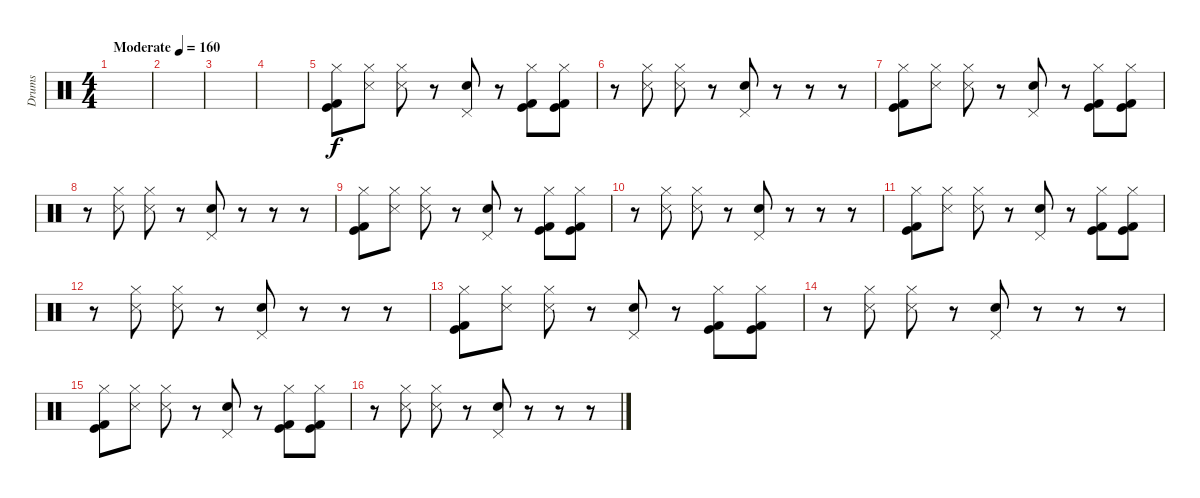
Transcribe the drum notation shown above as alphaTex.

\track ("Drums" "Drums") {instrument percussion}
\staff {score}
\articulation defaults
\ts (4 4)
\tempo (160 "Moderate")
\clef neutral
\ks c
|
|
|
|
("Kick (hit)" "Kick (hit) 2" "Hi-Hat (closed)").8 ("Metronome (hit)" "Hi-Hat (closed)").8 ("Metronome (hit)" "Hi-Hat (closed)").8 r.8 ("Pedal Hi-Hat (hit)" "Electric Snare (hit)").8 r.8 ("Kick (hit)" "Kick (hit) 2" "Hi-Hat (closed)").8 ("Kick (hit)" "Kick (hit) 2" "Hi-Hat (closed)").8 |
r.8 ("Metronome (hit)" "Hi-Hat (closed)").8 ("Metronome (hit)" "Hi-Hat (closed)").8 r.8 ("Pedal Hi-Hat (hit)" "Electric Snare (hit)").8 r.8 r.8 r.8 |
("Kick (hit)" "Kick (hit) 2" "Hi-Hat (closed)").8 ("Metronome (hit)" "Hi-Hat (closed)").8 ("Metronome (hit)" "Hi-Hat (closed)").8 r.8 ("Pedal Hi-Hat (hit)" "Electric Snare (hit)").8 r.8 ("Kick (hit)" "Kick (hit) 2" "Hi-Hat (closed)").8 ("Kick (hit)" "Kick (hit) 2" "Hi-Hat (closed)").8 |
r.8 ("Metronome (hit)" "Hi-Hat (closed)").8 ("Metronome (hit)" "Hi-Hat (closed)").8 r.8 ("Pedal Hi-Hat (hit)" "Electric Snare (hit)").8 r.8 r.8 r.8 |
("Kick (hit)" "Kick (hit) 2" "Hi-Hat (closed)").8 ("Metronome (hit)" "Hi-Hat (closed)").8 ("Metronome (hit)" "Hi-Hat (closed)").8 r.8 ("Pedal Hi-Hat (hit)" "Electric Snare (hit)").8 r.8 ("Kick (hit)" "Kick (hit) 2" "Hi-Hat (closed)").8 ("Kick (hit)" "Kick (hit) 2" "Hi-Hat (closed)").8 |
r.8 ("Metronome (hit)" "Hi-Hat (closed)").8 ("Metronome (hit)" "Hi-Hat (closed)").8 r.8 ("Pedal Hi-Hat (hit)" "Electric Snare (hit)").8 r.8 r.8 r.8 |
("Kick (hit)" "Kick (hit) 2" "Hi-Hat (closed)").8 ("Metronome (hit)" "Hi-Hat (closed)").8 ("Metronome (hit)" "Hi-Hat (closed)").8 r.8 ("Pedal Hi-Hat (hit)" "Electric Snare (hit)").8 r.8 ("Kick (hit)" "Kick (hit) 2" "Hi-Hat (closed)").8 ("Kick (hit)" "Kick (hit) 2" "Hi-Hat (closed)").8 |
r.8 ("Metronome (hit)" "Hi-Hat (closed)").8 ("Metronome (hit)" "Hi-Hat (closed)").8 r.8 ("Pedal Hi-Hat (hit)" "Electric Snare (hit)").8 r.8 r.8 r.8 |
("Kick (hit)" "Kick (hit) 2" "Hi-Hat (closed)").8 ("Metronome (hit)" "Hi-Hat (closed)").8 ("Metronome (hit)" "Hi-Hat (closed)").8 r.8 ("Pedal Hi-Hat (hit)" "Electric Snare (hit)").8 r.8 ("Kick (hit)" "Kick (hit) 2" "Hi-Hat (closed)").8 ("Kick (hit)" "Kick (hit) 2" "Hi-Hat (closed)").8 |
r.8 ("Metronome (hit)" "Hi-Hat (closed)").8 ("Metronome (hit)" "Hi-Hat (closed)").8 r.8 ("Pedal Hi-Hat (hit)" "Electric Snare (hit)").8 r.8 r.8 r.8 |
("Kick (hit)" "Kick (hit) 2" "Hi-Hat (closed)").8 ("Metronome (hit)" "Hi-Hat (closed)").8 ("Metronome (hit)" "Hi-Hat (closed)").8 r.8 ("Pedal Hi-Hat (hit)" "Electric Snare (hit)").8 r.8 ("Kick (hit)" "Kick (hit) 2" "Hi-Hat (closed)").8 ("Kick (hit)" "Kick (hit) 2" "Hi-Hat (closed)").8 |
r.8 ("Metronome (hit)" "Hi-Hat (closed)").8 ("Metronome (hit)" "Hi-Hat (closed)").8 r.8 ("Pedal Hi-Hat (hit)" "Electric Snare (hit)").8 r.8 r.8 r.8
